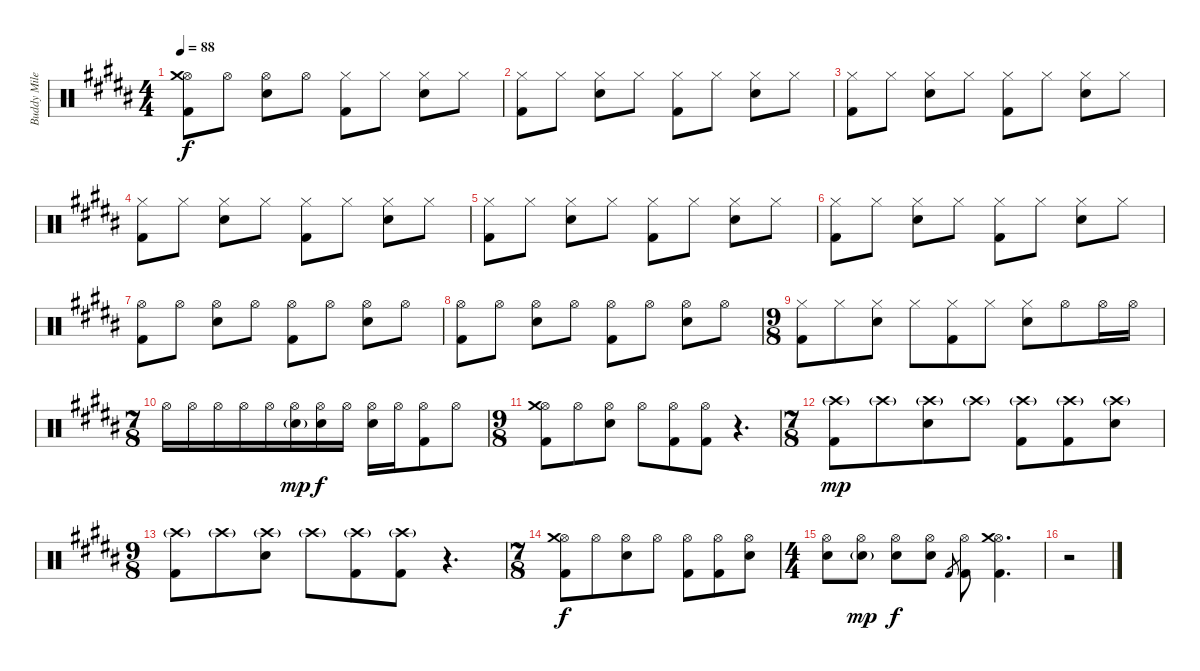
\track ("Buddy Miles" "Buddy Mile") {instrument percussion}
\staff {score}
\articulation defaults
\ts (4 4)
\tempo 88
\clef neutral
\ks b
("Hi-Hat (open)" "Kick (hit) 2" "Crash medium (hit)").8{dy f} "Hi-Hat (open)".8 ("Hi-Hat (open)" "Electric Snare (hit)").8 "Hi-Hat (open)".8 ("Hi-Hat (closed)" "Kick (hit) 2").8 "Hi-Hat (closed)".8 ("Hi-Hat (closed)" "Electric Snare (hit)").8 "Hi-Hat (closed)".8 |
("Hi-Hat (closed)" "Kick (hit) 2").8 "Hi-Hat (closed)".8 ("Hi-Hat (closed)" "Electric Snare (hit)").8 "Hi-Hat (closed)".8 ("Hi-Hat (closed)" "Kick (hit) 2").8 "Hi-Hat (closed)".8 ("Hi-Hat (closed)" "Electric Snare (hit)").8 "Hi-Hat (closed)".8 |
("Hi-Hat (closed)" "Kick (hit) 2").8 "Hi-Hat (closed)".8 ("Hi-Hat (closed)" "Electric Snare (hit)").8 "Hi-Hat (closed)".8 ("Hi-Hat (closed)" "Kick (hit) 2").8 "Hi-Hat (closed)".8 ("Hi-Hat (closed)" "Electric Snare (hit)").8 "Hi-Hat (closed)".8 |
("Hi-Hat (closed)" "Kick (hit) 2").8 "Hi-Hat (closed)".8 ("Hi-Hat (closed)" "Electric Snare (hit)").8 "Hi-Hat (closed)".8 ("Hi-Hat (closed)" "Kick (hit) 2").8 "Hi-Hat (closed)".8 ("Hi-Hat (closed)" "Electric Snare (hit)").8 "Hi-Hat (closed)".8 |
("Hi-Hat (closed)" "Kick (hit) 2").8 "Hi-Hat (closed)".8 ("Hi-Hat (closed)" "Electric Snare (hit)").8 "Hi-Hat (closed)".8 ("Hi-Hat (closed)" "Kick (hit) 2").8 "Hi-Hat (closed)".8 ("Hi-Hat (closed)" "Electric Snare (hit)").8 "Hi-Hat (closed)".8 |
("Hi-Hat (closed)" "Kick (hit) 2").8 "Hi-Hat (closed)".8 ("Hi-Hat (closed)" "Electric Snare (hit)").8 "Hi-Hat (closed)".8 ("Hi-Hat (closed)" "Kick (hit) 2").8 "Hi-Hat (closed)".8 ("Hi-Hat (closed)" "Electric Snare (hit)").8 "Hi-Hat (closed)".8 |
("Hi-Hat (open)" "Kick (hit) 2").8 "Hi-Hat (open)".8 ("Hi-Hat (open)" "Electric Snare (hit)").8 "Hi-Hat (open)".8 ("Hi-Hat (open)" "Kick (hit) 2").8 "Hi-Hat (open)".8 ("Hi-Hat (open)" "Electric Snare (hit)").8 "Hi-Hat (open)".8 |
("Hi-Hat (open)" "Kick (hit) 2").8 "Hi-Hat (open)".8 ("Hi-Hat (open)" "Electric Snare (hit)").8 "Hi-Hat (open)".8 ("Hi-Hat (open)" "Kick (hit) 2").8 "Hi-Hat (open)".8 ("Hi-Hat (open)" "Electric Snare (hit)").8 "Hi-Hat (open)".8 |
\ts (9 8)
("Hi-Hat (closed)" "Kick (hit) 2").8 "Hi-Hat (closed)".8 ("Hi-Hat (closed)" "Electric Snare (hit)").8 "Hi-Hat (closed)".8 ("Hi-Hat (closed)" "Kick (hit) 2").8 "Hi-Hat (closed)".8 ("Hi-Hat (closed)" "Electric Snare (hit)").8 "Hi-Hat (open)".8 "Hi-Hat (open)".16 "Hi-Hat (open)".16 |
\ts (7 8)
"Hi-Hat (open)".16 "Hi-Hat (open)".16 "Hi-Hat (open)".16 "Hi-Hat (open)".16 "Hi-Hat (open)".16 ("Hi-Hat (open)" "Electric Snare (hit)"{g}).16{dy mp} ("Hi-Hat (open)" "Electric Snare (hit)").16{dy f} "Hi-Hat (open)".16 ("Hi-Hat (open)" "Electric Snare (hit)").16 "Hi-Hat (open)".16 ("Hi-Hat (open)" "Kick (hit) 2").8 "Hi-Hat (open)".8 |
\ts (9 8)
("Hi-Hat (open)" "Kick (hit) 2" "Crash medium (hit)").8 "Hi-Hat (open)".8 ("Hi-Hat (open)" "Electric Snare (hit)").8 "Hi-Hat (open)".8 ("Hi-Hat (open)" "Kick (hit) 2").8 ("Hi-Hat (open)" "Kick (hit) 2").8 r.4{d} |
\ts (7 8)
("Crash high (hit)"{g} "Kick (hit) 2").8{dy mp} "Crash high (hit)"{g}.8 ("Crash high (hit)"{g} "Electric Snare (hit)").8 "Crash high (hit)"{g}.8 ("Crash high (hit)"{g} "Kick (hit) 2").8 ("Crash high (hit)"{g} "Kick (hit) 2").8 ("Crash high (hit)"{g} "Electric Snare (hit)").8 |
\ts (9 8)
("Crash high (hit)"{g} "Kick (hit) 2").8 "Crash high (hit)"{g}.8 ("Crash high (hit)"{g} "Electric Snare (hit)").8 "Crash high (hit)"{g}.8 ("Crash high (hit)"{g} "Kick (hit) 2").8 ("Crash high (hit)"{g} "Kick (hit) 2").8 r.4{d} |
\ts (7 8)
("Hi-Hat (open)" "Kick (hit) 2" "Crash medium (hit)").8{dy f} "Hi-Hat (open)".8 ("Hi-Hat (open)" "Electric Snare (hit)").8 "Hi-Hat (open)".8 ("Hi-Hat (open)" "Kick (hit) 2").8 ("Hi-Hat (open)" "Kick (hit) 2").8 ("Hi-Hat (open)" "Electric Snare (hit)").8 |
\ts (4 4)
("Hi-Hat (open)" "Electric Snare (hit)").8 ("Hi-Hat (open)" "Electric Snare (hit)"{g}).8{dy mp} ("Hi-Hat (open)" "Electric Snare (hit)").8{dy f} ("Hi-Hat (open)" "Electric Snare (hit)").8 "Kick (hit) 2".8{gr} ("Hi-Hat (open)" "Kick (hit) 2").8 ("Hi-Hat (open)" "Kick (hit) 2" "Crash medium (hit)").4{d} |
r.2
